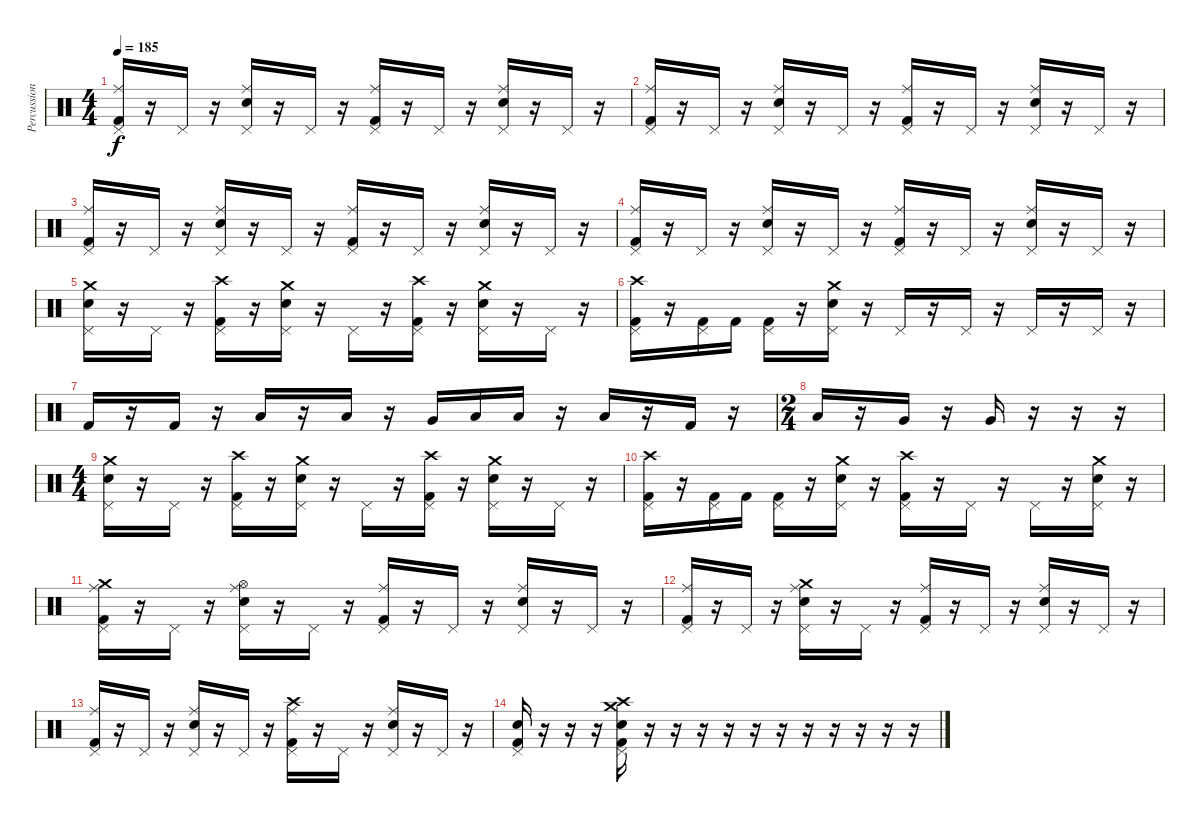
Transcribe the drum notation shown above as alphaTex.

\track ("Percussion" "Percussion") {instrument percussion}
\staff {score}
\articulation defaults
\ts (4 4)
\tempo 185
\clef neutral
\ks c
("Ride (middle)" "Pedal Hi-Hat (hit)" "Kick (hit) 2").16{dy f} r.16 "Pedal Hi-Hat (hit)".16 r.16 ("Ride (middle)" "Pedal Hi-Hat (hit)" "Snare (hit) 2").16 r.16 "Pedal Hi-Hat (hit)".16 r.16 ("Ride (middle)" "Pedal Hi-Hat (hit)" "Kick (hit) 2").16 r.16 "Pedal Hi-Hat (hit)".16 r.16 ("Ride (middle)" "Pedal Hi-Hat (hit)" "Snare (hit) 2").16 r.16 "Pedal Hi-Hat (hit)".16 r.16 |
("Ride (middle)" "Pedal Hi-Hat (hit)" "Kick (hit) 2").16 r.16 "Pedal Hi-Hat (hit)".16 r.16 ("Ride (middle)" "Pedal Hi-Hat (hit)" "Snare (hit) 2").16 r.16 "Pedal Hi-Hat (hit)".16 r.16 ("Ride (middle)" "Pedal Hi-Hat (hit)" "Kick (hit) 2").16 r.16 "Pedal Hi-Hat (hit)".16 r.16 ("Ride (middle)" "Pedal Hi-Hat (hit)" "Snare (hit) 2").16 r.16 "Pedal Hi-Hat (hit)".16 r.16 |
("Ride (middle)" "Pedal Hi-Hat (hit)" "Kick (hit) 2").16 r.16 "Pedal Hi-Hat (hit)".16 r.16 ("Ride (middle)" "Pedal Hi-Hat (hit)" "Snare (hit) 2").16 r.16 "Pedal Hi-Hat (hit)".16 r.16 ("Ride (middle)" "Pedal Hi-Hat (hit)" "Kick (hit) 2").16 r.16 "Pedal Hi-Hat (hit)".16 r.16 ("Ride (middle)" "Pedal Hi-Hat (hit)" "Snare (hit) 2").16 r.16 "Pedal Hi-Hat (hit)".16 r.16 |
("Ride (middle)" "Pedal Hi-Hat (hit)" "Kick (hit) 2").16 r.16 "Pedal Hi-Hat (hit)".16 r.16 ("Ride (middle)" "Pedal Hi-Hat (hit)" "Snare (hit) 2").16 r.16 "Pedal Hi-Hat (hit)".16 r.16 ("Ride (middle)" "Pedal Hi-Hat (hit)" "Kick (hit) 2").16 r.16 "Pedal Hi-Hat (hit)".16 r.16 ("Ride (middle)" "Pedal Hi-Hat (hit)" "Snare (hit) 2").16 r.16 "Pedal Hi-Hat (hit)".16 r.16 |
("Crash medium (hit)" "Snare (hit) 2" "Pedal Hi-Hat (hit)").16 r.16 "Pedal Hi-Hat (hit)".16 r.16 ("Crash high (hit)" "Kick (hit) 2" "Pedal Hi-Hat (hit)").16 r.16 ("Crash medium (hit)" "Snare (hit) 2" "Pedal Hi-Hat (hit)").16 r.16 "Pedal Hi-Hat (hit)".16 r.16 ("Crash high (hit)" "Kick (hit) 2" "Pedal Hi-Hat (hit)").16 r.16 ("Crash medium (hit)" "Snare (hit) 2" "Pedal Hi-Hat (hit)").16 r.16 "Pedal Hi-Hat (hit)".16 r.16 |
("Crash high (hit)" "Kick (hit) 2" "Pedal Hi-Hat (hit)").16 r.16 ("Kick (hit) 2" "Pedal Hi-Hat (hit)").16 "Kick (hit) 2".16 ("Kick (hit) 2" "Pedal Hi-Hat (hit)").16 r.16 ("Crash medium (hit)" "Snare (hit) 2" "Pedal Hi-Hat (hit)").16 r.16 "Pedal Hi-Hat (hit)".16 r.16 "Pedal Hi-Hat (hit)".16 r.16 "Pedal Hi-Hat (hit)".16 r.16 "Pedal Hi-Hat (hit)".16 r.16 |
"Kick (hit) 2".16 r.16 "Kick (hit) 2".16 r.16 "Low Floor Tom (hit)".16 r.16 "Low Floor Tom (hit)".16 r.16 "Very Low Tom (hit)".16 "Low Tom (hit)".16 "Low Floor Tom (hit)".16 r.16 "Low Floor Tom (hit)".16 r.16 "Kick (hit) 2".16 r.16 |
\ts (2 4)
"Low Floor Tom (hit)".16 r.16 "Very Low Tom (hit)".16 r.16 "Very Low Tom (hit)".16 r.16 r.16 r.16 |
\ts (4 4)
("Crash medium (hit)" "Snare (hit) 2" "Pedal Hi-Hat (hit)").16 r.16 "Pedal Hi-Hat (hit)".16 r.16 ("Crash high (hit)" "Kick (hit) 2" "Pedal Hi-Hat (hit)").16 r.16 ("Crash medium (hit)" "Snare (hit) 2" "Pedal Hi-Hat (hit)").16 r.16 "Pedal Hi-Hat (hit)".16 r.16 ("Crash high (hit)" "Kick (hit) 2" "Pedal Hi-Hat (hit)").16 r.16 ("Crash medium (hit)" "Snare (hit) 2" "Pedal Hi-Hat (hit)").16 r.16 "Pedal Hi-Hat (hit)".16 r.16 |
("Crash high (hit)" "Kick (hit) 2" "Pedal Hi-Hat (hit)").16 r.16 ("Kick (hit) 2" "Pedal Hi-Hat (hit)").16 "Kick (hit) 2".16 ("Kick (hit) 2" "Pedal Hi-Hat (hit)").16 r.16 ("Crash medium (hit)" "Snare (hit) 2" "Pedal Hi-Hat (hit)").16 r.16 ("Crash high (hit)" "Kick (hit) 2" "Pedal Hi-Hat (hit)").16 r.16 "Pedal Hi-Hat (hit)".16 r.16 "Pedal Hi-Hat (hit)".16 r.16 ("Crash medium (hit)" "Snare (hit) 2" "Pedal Hi-Hat (hit)").16 r.16 |
("Ride (middle)" "Crash medium (hit)" "Pedal Hi-Hat (hit)" "Kick (hit) 2").16 r.16 "Pedal Hi-Hat (hit)".16 r.16 ("Ride (middle)" "Hi-Hat (open)" "Pedal Hi-Hat (hit)" "Snare (hit) 2").16 r.16 "Pedal Hi-Hat (hit)".16 r.16 ("Ride (middle)" "Pedal Hi-Hat (hit)" "Kick (hit) 2").16 r.16 "Pedal Hi-Hat (hit)".16 r.16 ("Ride (middle)" "Pedal Hi-Hat (hit)" "Snare (hit) 2").16 r.16 "Pedal Hi-Hat (hit)".16 r.16 |
("Ride (middle)" "Pedal Hi-Hat (hit)" "Kick (hit) 2").16 r.16 "Pedal Hi-Hat (hit)".16 r.16 ("Ride (middle)" "Crash medium (hit)" "Pedal Hi-Hat (hit)" "Snare (hit) 2").16 r.16 "Pedal Hi-Hat (hit)".16 r.16 ("Ride (middle)" "Pedal Hi-Hat (hit)" "Kick (hit) 2").16 r.16 "Pedal Hi-Hat (hit)".16 r.16 ("Ride (middle)" "Pedal Hi-Hat (hit)" "Snare (hit) 2").16 r.16 "Pedal Hi-Hat (hit)".16 r.16 |
("Ride (middle)" "Pedal Hi-Hat (hit)" "Kick (hit) 2").16 r.16 "Pedal Hi-Hat (hit)".16 r.16 ("Ride (middle)" "Pedal Hi-Hat (hit)" "Snare (hit) 2").16 r.16 "Pedal Hi-Hat (hit)".16 r.16 ("Ride (middle)" "Crash high (hit)" "Pedal Hi-Hat (hit)" "Kick (hit) 2").16 r.16 "Pedal Hi-Hat (hit)".16 r.16 ("Ride (middle)" "Pedal Hi-Hat (hit)" "Snare (hit) 2").16 r.16 "Pedal Hi-Hat (hit)".16 r.16 |
("Snare (hit) 2" "Pedal Hi-Hat (hit)" "Kick (hit) 2").16 r.16 r.16 r.16 ("Crash high (hit)" "Crash medium (hit)" "Snare (hit) 2" "Pedal Hi-Hat (hit)" "Kick (hit) 2").16 r.16 r.16 r.16 r.16 r.16 r.16 r.16 r.16 r.16 r.16 r.16
